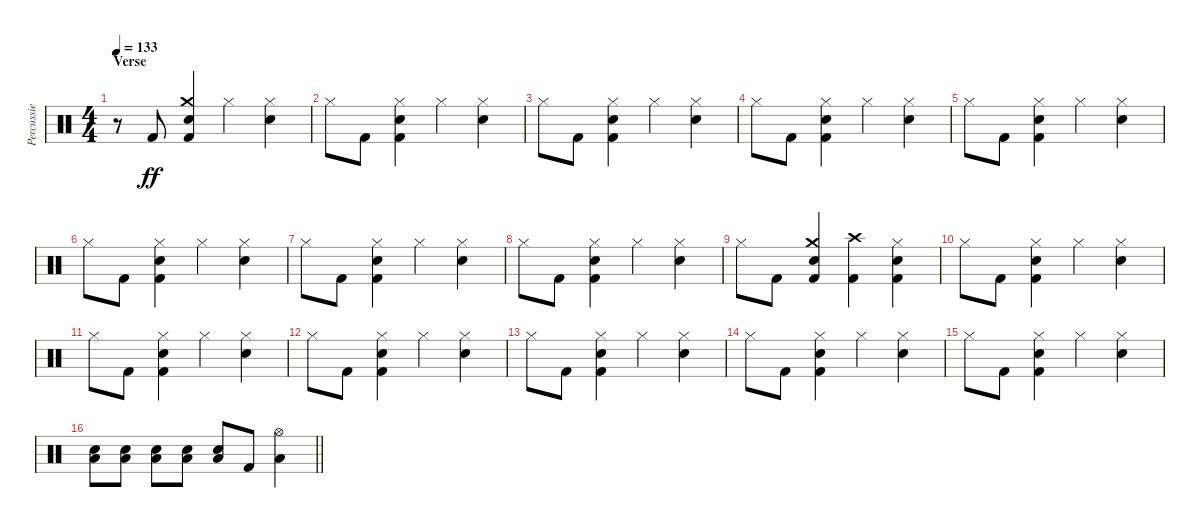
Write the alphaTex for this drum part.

\track ("Percussie" "Percussie") {instrument percussion}
\staff {score}
\articulation defaults
\ts (4 4)
\section ("" "Verse")
\tempo 133
\clef neutral
\ks c
r.8{dy ff} "Kick (hit) 2".8 ("Crash medium (hit)" "Snare (hit) 2" "Kick (hit) 2").4 "Hi-Hat (closed)".4 ("Hi-Hat (closed)" "Snare (hit) 2").4 |
"Hi-Hat (closed)".8 "Kick (hit) 2".8 ("Hi-Hat (closed)" "Snare (hit) 2" "Kick (hit) 2").4 "Hi-Hat (closed)".4 ("Hi-Hat (closed)" "Snare (hit) 2").4 |
"Hi-Hat (closed)".8 "Kick (hit) 2".8 ("Hi-Hat (closed)" "Snare (hit) 2" "Kick (hit) 2").4 "Hi-Hat (closed)".4 ("Hi-Hat (closed)" "Snare (hit) 2").4 |
"Hi-Hat (closed)".8 "Kick (hit) 2".8 ("Hi-Hat (closed)" "Snare (hit) 2" "Kick (hit) 2").4 "Hi-Hat (closed)".4 ("Hi-Hat (closed)" "Snare (hit) 2").4 |
"Hi-Hat (closed)".8 "Kick (hit) 2".8 ("Hi-Hat (closed)" "Snare (hit) 2" "Kick (hit) 2").4 "Hi-Hat (closed)".4 ("Hi-Hat (closed)" "Snare (hit) 2").4 |
"Hi-Hat (closed)".8 "Kick (hit) 2".8 ("Hi-Hat (closed)" "Snare (hit) 2" "Kick (hit) 2").4 "Hi-Hat (closed)".4 ("Hi-Hat (closed)" "Snare (hit) 2").4 |
"Hi-Hat (closed)".8 "Kick (hit) 2".8 ("Hi-Hat (closed)" "Snare (hit) 2" "Kick (hit) 2").4 "Hi-Hat (closed)".4 ("Hi-Hat (closed)" "Snare (hit) 2").4 |
"Hi-Hat (closed)".8 "Kick (hit) 2".8 ("Hi-Hat (closed)" "Snare (hit) 2" "Kick (hit) 2").4 "Hi-Hat (closed)".4 ("Hi-Hat (closed)" "Snare (hit) 2").4 |
"Hi-Hat (closed)".8 "Kick (hit) 2".8 ("Crash medium (hit)" "Snare (hit) 2" "Kick (hit) 2").4 ("Crash high (hit)" "Kick (hit) 2").4 ("Hi-Hat (closed)" "Snare (hit) 2" "Kick (hit) 2").4 |
"Hi-Hat (closed)".8 "Kick (hit) 2".8 ("Hi-Hat (closed)" "Snare (hit) 2" "Kick (hit) 2").4 "Hi-Hat (closed)".4 ("Hi-Hat (closed)" "Snare (hit) 2").4 |
"Hi-Hat (closed)".8 "Kick (hit) 2".8 ("Hi-Hat (closed)" "Snare (hit) 2" "Kick (hit) 2").4 "Hi-Hat (closed)".4 ("Hi-Hat (closed)" "Snare (hit) 2").4 |
"Hi-Hat (closed)".8 "Kick (hit) 2".8 ("Hi-Hat (closed)" "Snare (hit) 2" "Kick (hit) 2").4 "Hi-Hat (closed)".4 ("Hi-Hat (closed)" "Snare (hit) 2").4 |
"Hi-Hat (closed)".8 "Kick (hit) 2".8 ("Hi-Hat (closed)" "Snare (hit) 2" "Kick (hit) 2").4 "Hi-Hat (closed)".4 ("Hi-Hat (closed)" "Snare (hit) 2").4 |
"Hi-Hat (closed)".8 "Kick (hit) 2".8 ("Hi-Hat (closed)" "Snare (hit) 2" "Kick (hit) 2").4 "Hi-Hat (closed)".4 ("Hi-Hat (closed)" "Snare (hit) 2").4 |
"Hi-Hat (closed)".8 "Kick (hit) 2".8 ("Hi-Hat (closed)" "Snare (hit) 2" "Kick (hit) 2").4 "Hi-Hat (closed)".4 ("Hi-Hat (closed)" "Snare (hit) 2").4 |
\barLineRight lightlight
("Low Floor Tom (hit)" "Snare (hit) 2").8 ("Low Floor Tom (hit)" "Snare (hit) 2").8 ("Low Floor Tom (hit)" "Snare (hit) 2").8 ("Low Floor Tom (hit)" "Snare (hit) 2").8 ("Low Floor Tom (hit)" "Snare (hit) 2").8 "Kick (hit) 2".8 ("Hi-Hat (open)" "Low Floor Tom (hit)").4
